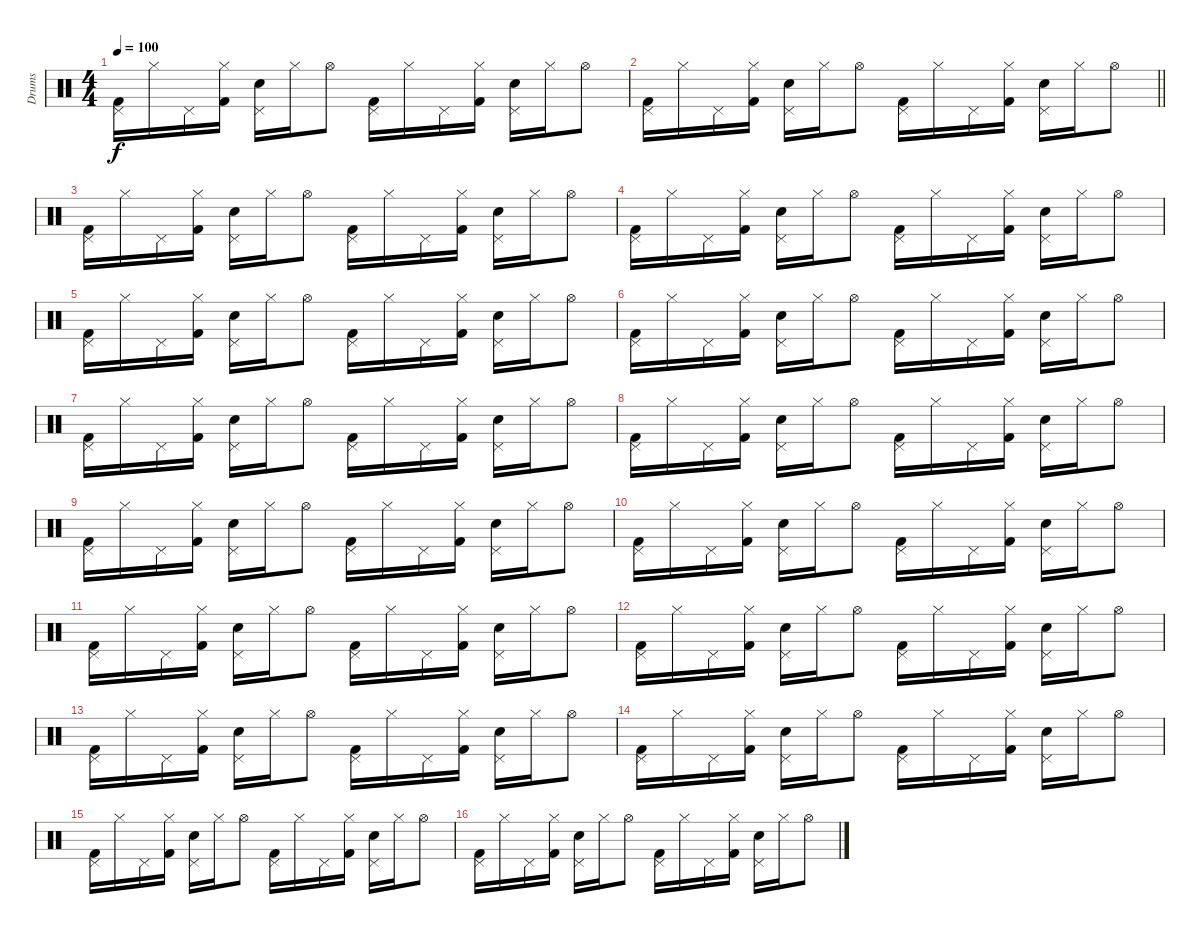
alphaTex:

\track ("Drums" "Drums") {instrument percussion}
\staff {score}
\articulation defaults
\ts (4 4)
\tempo 100
\clef neutral
\ks c
("Pedal Hi-Hat (hit)" "Kick (hit) 2").16{dy f} "Hi-Hat (closed)".16 "Pedal Hi-Hat (hit)".16 ("Hi-Hat (closed)" "Kick (hit) 2").16 ("Pedal Hi-Hat (hit)" "Electric Snare (hit)").16 "Hi-Hat (closed)".16 "Hi-Hat (open)".8 ("Pedal Hi-Hat (hit)" "Kick (hit) 2").16 "Hi-Hat (closed)".16 "Pedal Hi-Hat (hit)".16 ("Hi-Hat (closed)" "Kick (hit) 2").16 ("Pedal Hi-Hat (hit)" "Electric Snare (hit)").16 "Hi-Hat (closed)".16 "Hi-Hat (open)".8 |
\barLineRight lightlight
("Pedal Hi-Hat (hit)" "Kick (hit) 2").16 "Hi-Hat (closed)".16 "Pedal Hi-Hat (hit)".16 ("Hi-Hat (closed)" "Kick (hit) 2").16 ("Pedal Hi-Hat (hit)" "Electric Snare (hit)").16 "Hi-Hat (closed)".16 "Hi-Hat (open)".8 ("Pedal Hi-Hat (hit)" "Kick (hit) 2").16 "Hi-Hat (closed)".16 "Pedal Hi-Hat (hit)".16 ("Hi-Hat (closed)" "Kick (hit) 2").16 ("Pedal Hi-Hat (hit)" "Electric Snare (hit)").16 "Hi-Hat (closed)".16 "Hi-Hat (open)".8 |
("Pedal Hi-Hat (hit)" "Kick (hit) 2").16 "Hi-Hat (closed)".16 "Pedal Hi-Hat (hit)".16 ("Hi-Hat (closed)" "Kick (hit) 2").16 ("Pedal Hi-Hat (hit)" "Electric Snare (hit)").16 "Hi-Hat (closed)".16 "Hi-Hat (open)".8 ("Pedal Hi-Hat (hit)" "Kick (hit) 2").16 "Hi-Hat (closed)".16 "Pedal Hi-Hat (hit)".16 ("Hi-Hat (closed)" "Kick (hit) 2").16 ("Pedal Hi-Hat (hit)" "Electric Snare (hit)").16 "Hi-Hat (closed)".16 "Hi-Hat (open)".8 |
("Pedal Hi-Hat (hit)" "Kick (hit) 2").16 "Hi-Hat (closed)".16 "Pedal Hi-Hat (hit)".16 ("Hi-Hat (closed)" "Kick (hit) 2").16 ("Pedal Hi-Hat (hit)" "Electric Snare (hit)").16 "Hi-Hat (closed)".16 "Hi-Hat (open)".8 ("Pedal Hi-Hat (hit)" "Kick (hit) 2").16 "Hi-Hat (closed)".16 "Pedal Hi-Hat (hit)".16 ("Hi-Hat (closed)" "Kick (hit) 2").16 ("Pedal Hi-Hat (hit)" "Electric Snare (hit)").16 "Hi-Hat (closed)".16 "Hi-Hat (open)".8 |
("Pedal Hi-Hat (hit)" "Kick (hit) 2").16 "Hi-Hat (closed)".16 "Pedal Hi-Hat (hit)".16 ("Hi-Hat (closed)" "Kick (hit) 2").16 ("Pedal Hi-Hat (hit)" "Electric Snare (hit)").16 "Hi-Hat (closed)".16 "Hi-Hat (open)".8 ("Pedal Hi-Hat (hit)" "Kick (hit) 2").16 "Hi-Hat (closed)".16 "Pedal Hi-Hat (hit)".16 ("Hi-Hat (closed)" "Kick (hit) 2").16 ("Pedal Hi-Hat (hit)" "Electric Snare (hit)").16 "Hi-Hat (closed)".16 "Hi-Hat (open)".8 |
("Pedal Hi-Hat (hit)" "Kick (hit) 2").16 "Hi-Hat (closed)".16 "Pedal Hi-Hat (hit)".16 ("Hi-Hat (closed)" "Kick (hit) 2").16 ("Pedal Hi-Hat (hit)" "Electric Snare (hit)").16 "Hi-Hat (closed)".16 "Hi-Hat (open)".8 ("Pedal Hi-Hat (hit)" "Kick (hit) 2").16 "Hi-Hat (closed)".16 "Pedal Hi-Hat (hit)".16 ("Hi-Hat (closed)" "Kick (hit) 2").16 ("Pedal Hi-Hat (hit)" "Electric Snare (hit)").16 "Hi-Hat (closed)".16 "Hi-Hat (open)".8 |
("Pedal Hi-Hat (hit)" "Kick (hit) 2").16 "Hi-Hat (closed)".16 "Pedal Hi-Hat (hit)".16 ("Hi-Hat (closed)" "Kick (hit) 2").16 ("Pedal Hi-Hat (hit)" "Electric Snare (hit)").16 "Hi-Hat (closed)".16 "Hi-Hat (open)".8 ("Pedal Hi-Hat (hit)" "Kick (hit) 2").16 "Hi-Hat (closed)".16 "Pedal Hi-Hat (hit)".16 ("Hi-Hat (closed)" "Kick (hit) 2").16 ("Pedal Hi-Hat (hit)" "Electric Snare (hit)").16 "Hi-Hat (closed)".16 "Hi-Hat (open)".8 |
("Pedal Hi-Hat (hit)" "Kick (hit) 2").16 "Hi-Hat (closed)".16 "Pedal Hi-Hat (hit)".16 ("Hi-Hat (closed)" "Kick (hit) 2").16 ("Pedal Hi-Hat (hit)" "Electric Snare (hit)").16 "Hi-Hat (closed)".16 "Hi-Hat (open)".8 ("Pedal Hi-Hat (hit)" "Kick (hit) 2").16 "Hi-Hat (closed)".16 "Pedal Hi-Hat (hit)".16 ("Hi-Hat (closed)" "Kick (hit) 2").16 ("Pedal Hi-Hat (hit)" "Electric Snare (hit)").16 "Hi-Hat (closed)".16 "Hi-Hat (open)".8 |
("Pedal Hi-Hat (hit)" "Kick (hit) 2").16 "Hi-Hat (closed)".16 "Pedal Hi-Hat (hit)".16 ("Hi-Hat (closed)" "Kick (hit) 2").16 ("Pedal Hi-Hat (hit)" "Electric Snare (hit)").16 "Hi-Hat (closed)".16 "Hi-Hat (open)".8 ("Pedal Hi-Hat (hit)" "Kick (hit) 2").16 "Hi-Hat (closed)".16 "Pedal Hi-Hat (hit)".16 ("Hi-Hat (closed)" "Kick (hit) 2").16 ("Pedal Hi-Hat (hit)" "Electric Snare (hit)").16 "Hi-Hat (closed)".16 "Hi-Hat (open)".8 |
("Pedal Hi-Hat (hit)" "Kick (hit) 2").16 "Hi-Hat (closed)".16 "Pedal Hi-Hat (hit)".16 ("Hi-Hat (closed)" "Kick (hit) 2").16 ("Pedal Hi-Hat (hit)" "Electric Snare (hit)").16 "Hi-Hat (closed)".16 "Hi-Hat (open)".8 ("Pedal Hi-Hat (hit)" "Kick (hit) 2").16 "Hi-Hat (closed)".16 "Pedal Hi-Hat (hit)".16 ("Hi-Hat (closed)" "Kick (hit) 2").16 ("Pedal Hi-Hat (hit)" "Electric Snare (hit)").16 "Hi-Hat (closed)".16 "Hi-Hat (open)".8 |
("Pedal Hi-Hat (hit)" "Kick (hit) 2").16 "Hi-Hat (closed)".16 "Pedal Hi-Hat (hit)".16 ("Hi-Hat (closed)" "Kick (hit) 2").16 ("Pedal Hi-Hat (hit)" "Electric Snare (hit)").16 "Hi-Hat (closed)".16 "Hi-Hat (open)".8 ("Pedal Hi-Hat (hit)" "Kick (hit) 2").16 "Hi-Hat (closed)".16 "Pedal Hi-Hat (hit)".16 ("Hi-Hat (closed)" "Kick (hit) 2").16 ("Pedal Hi-Hat (hit)" "Electric Snare (hit)").16 "Hi-Hat (closed)".16 "Hi-Hat (open)".8 |
("Pedal Hi-Hat (hit)" "Kick (hit) 2").16 "Hi-Hat (closed)".16 "Pedal Hi-Hat (hit)".16 ("Hi-Hat (closed)" "Kick (hit) 2").16 ("Pedal Hi-Hat (hit)" "Electric Snare (hit)").16 "Hi-Hat (closed)".16 "Hi-Hat (open)".8 ("Pedal Hi-Hat (hit)" "Kick (hit) 2").16 "Hi-Hat (closed)".16 "Pedal Hi-Hat (hit)".16 ("Hi-Hat (closed)" "Kick (hit) 2").16 ("Pedal Hi-Hat (hit)" "Electric Snare (hit)").16 "Hi-Hat (closed)".16 "Hi-Hat (open)".8 |
("Pedal Hi-Hat (hit)" "Kick (hit) 2").16 "Hi-Hat (closed)".16 "Pedal Hi-Hat (hit)".16 ("Hi-Hat (closed)" "Kick (hit) 2").16 ("Pedal Hi-Hat (hit)" "Electric Snare (hit)").16 "Hi-Hat (closed)".16 "Hi-Hat (open)".8 ("Pedal Hi-Hat (hit)" "Kick (hit) 2").16 "Hi-Hat (closed)".16 "Pedal Hi-Hat (hit)".16 ("Hi-Hat (closed)" "Kick (hit) 2").16 ("Pedal Hi-Hat (hit)" "Electric Snare (hit)").16 "Hi-Hat (closed)".16 "Hi-Hat (open)".8 |
("Pedal Hi-Hat (hit)" "Kick (hit) 2").16 "Hi-Hat (closed)".16 "Pedal Hi-Hat (hit)".16 ("Hi-Hat (closed)" "Kick (hit) 2").16 ("Pedal Hi-Hat (hit)" "Electric Snare (hit)").16 "Hi-Hat (closed)".16 "Hi-Hat (open)".8 ("Pedal Hi-Hat (hit)" "Kick (hit) 2").16 "Hi-Hat (closed)".16 "Pedal Hi-Hat (hit)".16 ("Hi-Hat (closed)" "Kick (hit) 2").16 ("Pedal Hi-Hat (hit)" "Electric Snare (hit)").16 "Hi-Hat (closed)".16 "Hi-Hat (open)".8 |
("Pedal Hi-Hat (hit)" "Kick (hit) 2").16 "Hi-Hat (closed)".16 "Pedal Hi-Hat (hit)".16 ("Hi-Hat (closed)" "Kick (hit) 2").16 ("Pedal Hi-Hat (hit)" "Electric Snare (hit)").16 "Hi-Hat (closed)".16 "Hi-Hat (open)".8 ("Pedal Hi-Hat (hit)" "Kick (hit) 2").16 "Hi-Hat (closed)".16 "Pedal Hi-Hat (hit)".16 ("Hi-Hat (closed)" "Kick (hit) 2").16 ("Pedal Hi-Hat (hit)" "Electric Snare (hit)").16 "Hi-Hat (closed)".16 "Hi-Hat (open)".8 |
("Pedal Hi-Hat (hit)" "Kick (hit) 2").16 "Hi-Hat (closed)".16 "Pedal Hi-Hat (hit)".16 ("Hi-Hat (closed)" "Kick (hit) 2").16 ("Pedal Hi-Hat (hit)" "Electric Snare (hit)").16 "Hi-Hat (closed)".16 "Hi-Hat (open)".8 ("Pedal Hi-Hat (hit)" "Kick (hit) 2").16 "Hi-Hat (closed)".16 "Pedal Hi-Hat (hit)".16 ("Hi-Hat (closed)" "Kick (hit) 2").16 ("Pedal Hi-Hat (hit)" "Electric Snare (hit)").16 "Hi-Hat (closed)".16 "Hi-Hat (open)".8
